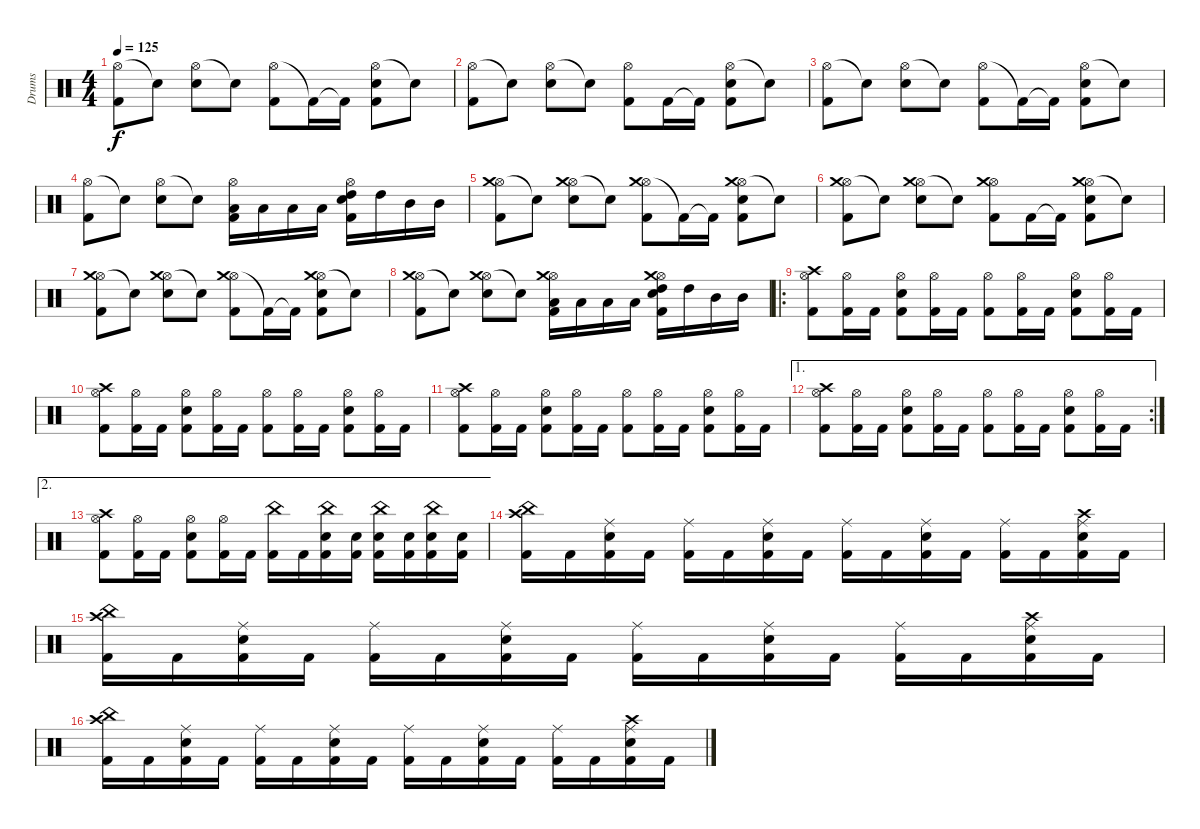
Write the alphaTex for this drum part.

\track ("Drums" "Drums") {instrument percussion}
\staff {score}
\articulation defaults
\ts (4 4)
\tempo 125
\clef neutral
\ks c
("Hi-Hat (open)" "Kick (hit) 2").8{dy f} "Snare (hit)"{t}.8 ("Hi-Hat (open)" "Snare (hit) 2").8 "Snare (hit)"{t}.8 ("Hi-Hat (open)" "Kick (hit) 2").8 "Kick (hit) 2"{t}.16 "Kick (hit) 2"{t}.16 ("Hi-Hat (open)" "Snare (hit) 2" "Kick (hit) 2").8 "Snare (hit)"{t}.8 |
("Hi-Hat (open)" "Kick (hit) 2").8 "Snare (hit)"{t}.8 ("Hi-Hat (open)" "Snare (hit) 2").8 "Snare (hit)"{t}.8 ("Hi-Hat (open)" "Kick (hit) 2").8 "Kick (hit) 2".16 "Kick (hit) 2"{t}.16 ("Hi-Hat (open)" "Snare (hit) 2" "Kick (hit) 2").8 "Snare (hit)"{t}.8 |
("Hi-Hat (open)" "Kick (hit) 2").8 "Snare (hit)"{t}.8 ("Hi-Hat (open)" "Snare (hit) 2").8 "Snare (hit)"{t}.8 ("Hi-Hat (open)" "Kick (hit) 2").8 "Kick (hit) 2"{t}.16 "Kick (hit) 2"{t}.16 ("Hi-Hat (open)" "Snare (hit) 2" "Kick (hit) 2").8 "Snare (hit)"{t}.8 |
("Hi-Hat (open)" "Kick (hit) 2").8 "Snare (hit)"{t}.8 ("Hi-Hat (open)" "Snare (hit) 2").8 "Snare (hit)"{t}.8 ("Hi-Hat (open)" "Kick (hit) 2" "Low Floor Tom (hit)").16 "Low Floor Tom (hit)".16 "Low Tom (hit)".16 "Low Tom (hit)".16 ("Hi-Hat (open)" "Kick (hit) 2" "Snare (hit) 2" "High Tom (hit)").16 "High Tom (hit)".16 "Mid Tom (hit)".16 "Mid Tom (hit)".16 |
("Hi-Hat (open)" "Crash medium (hit)" "Kick (hit) 2").8 "Snare (hit)"{t}.8 ("Hi-Hat (open)" "Crash medium (hit)" "Snare (hit) 2").8 "Snare (hit)"{t}.8 ("Hi-Hat (open)" "Crash medium (hit)" "Kick (hit) 2").8 "Kick (hit) 2"{t}.16 "Kick (hit) 2"{t}.16 ("Hi-Hat (open)" "Crash medium (hit)" "Snare (hit) 2" "Kick (hit) 2").8 "Snare (hit)"{t}.8 |
("Hi-Hat (open)" "Crash medium (hit)" "Kick (hit) 2").8 "Snare (hit)"{t}.8 ("Hi-Hat (open)" "Crash medium (hit)" "Snare (hit) 2").8 "Snare (hit)"{t}.8 ("Hi-Hat (open)" "Crash medium (hit)" "Kick (hit) 2").8 "Kick (hit) 2".16 "Kick (hit) 2"{t}.16 ("Hi-Hat (open)" "Crash medium (hit)" "Snare (hit) 2" "Kick (hit) 2").8 "Snare (hit)"{t}.8 |
("Hi-Hat (open)" "Crash medium (hit)" "Kick (hit) 2").8 "Snare (hit)"{t}.8 ("Hi-Hat (open)" "Crash medium (hit)" "Snare (hit) 2").8 "Snare (hit)"{t}.8 ("Hi-Hat (open)" "Crash medium (hit)" "Kick (hit) 2").8 "Kick (hit) 2"{t}.16 "Kick (hit) 2"{t}.16 ("Hi-Hat (open)" "Crash medium (hit)" "Snare (hit) 2" "Kick (hit) 2").8 "Snare (hit)"{t}.8 |
("Hi-Hat (open)" "Crash medium (hit)" "Kick (hit) 2").8 "Snare (hit)"{t}.8 ("Hi-Hat (open)" "Crash medium (hit)" "Snare (hit) 2").8 "Snare (hit)"{t}.8 ("Hi-Hat (open)" "Crash medium (hit)" "Kick (hit) 2" "Low Floor Tom (hit)").16 "Low Floor Tom (hit)".16 "Low Tom (hit)".16 "Low Tom (hit)".16 ("Hi-Hat (open)" "Crash medium (hit)" "Kick (hit) 2" "Snare (hit) 2" "High Tom (hit)").16 "High Tom (hit)".16 "Mid Tom (hit)".16 "Mid Tom (hit)".16 |
\ro
("Hi-Hat (open)" "Crash high (hit)" "Kick (hit) 2").8 ("Hi-Hat (open)" "Kick (hit) 2").16 "Kick (hit) 2".16 ("Hi-Hat (open)" "Snare (hit) 2" "Kick (hit) 2").8 ("Hi-Hat (open)" "Kick (hit) 2").16 "Kick (hit) 2".16 ("Hi-Hat (open)" "Kick (hit) 2").8 ("Hi-Hat (open)" "Kick (hit) 2").16 "Kick (hit) 2".16 ("Hi-Hat (open)" "Snare (hit) 2" "Kick (hit) 2").8 ("Hi-Hat (open)" "Kick (hit) 2").16 "Kick (hit) 2".16 |
("Hi-Hat (open)" "Crash high (hit)" "Kick (hit) 2").8 ("Hi-Hat (open)" "Kick (hit) 2").16 "Kick (hit) 2".16 ("Hi-Hat (open)" "Snare (hit) 2" "Kick (hit) 2").8 ("Hi-Hat (open)" "Kick (hit) 2").16 "Kick (hit) 2".16 ("Hi-Hat (open)" "Kick (hit) 2").8 ("Hi-Hat (open)" "Kick (hit) 2").16 "Kick (hit) 2".16 ("Hi-Hat (open)" "Snare (hit) 2" "Kick (hit) 2").8 ("Hi-Hat (open)" "Kick (hit) 2").16 "Kick (hit) 2".16 |
("Hi-Hat (open)" "Crash high (hit)" "Kick (hit) 2").8 ("Hi-Hat (open)" "Kick (hit) 2").16 "Kick (hit) 2".16 ("Hi-Hat (open)" "Snare (hit) 2" "Kick (hit) 2").8 ("Hi-Hat (open)" "Kick (hit) 2").16 "Kick (hit) 2".16 ("Hi-Hat (open)" "Kick (hit) 2").8 ("Hi-Hat (open)" "Kick (hit) 2").16 "Kick (hit) 2".16 ("Hi-Hat (open)" "Snare (hit) 2" "Kick (hit) 2").8 ("Hi-Hat (open)" "Kick (hit) 2").16 "Kick (hit) 2".16 |
\ae 1
\rc 2
("Hi-Hat (open)" "Crash high (hit)" "Kick (hit) 2").8 ("Hi-Hat (open)" "Kick (hit) 2").16 "Kick (hit) 2".16 ("Hi-Hat (open)" "Snare (hit) 2" "Kick (hit) 2").8 ("Hi-Hat (open)" "Kick (hit) 2").16 "Kick (hit) 2".16 ("Hi-Hat (open)" "Kick (hit) 2").8 ("Hi-Hat (open)" "Kick (hit) 2").16 "Kick (hit) 2".16 ("Hi-Hat (open)" "Snare (hit) 2" "Kick (hit) 2").8 ("Hi-Hat (open)" "Kick (hit) 2").16 "Kick (hit) 2".16 |
\ae 2
("Hi-Hat (open)" "Crash high (hit)" "Kick (hit) 2").8 ("Hi-Hat (open)" "Kick (hit) 2").16 "Kick (hit) 2".16 ("Hi-Hat (open)" "Snare (hit) 2" "Kick (hit) 2").8 ("Hi-Hat (open)" "Kick (hit) 2").16 "Kick (hit) 2".16 ("China (hit)" "Kick (hit) 2").16 "Kick (hit) 2".16 ("China (hit)" "Snare (hit) 2" "Kick (hit) 2").16 ("Snare (hit) 2" "Kick (hit) 2").16 ("China (hit)" "Snare (hit) 2" "Kick (hit) 2").16 ("Snare (hit) 2" "Kick (hit) 2").16 ("China (hit)" "Snare (hit) 2" "Kick (hit) 2").16 ("Snare (hit) 2" "Kick (hit) 2").16 |
("China (hit)" "Crash high (hit)" "Kick (hit) 2").16 "Kick (hit) 2".16 ("Ride (middle)" "Snare (hit) 2" "Kick (hit) 2").16 "Kick (hit) 2".16 ("Ride (middle)" "Kick (hit) 2").16 "Kick (hit) 2".16 ("Ride (middle)" "Snare (hit) 2" "Kick (hit) 2").16 "Kick (hit) 2".16 ("Ride (middle)" "Kick (hit) 2").16 "Kick (hit) 2".16 ("Ride (middle)" "Snare (hit) 2" "Kick (hit) 2").16 "Kick (hit) 2".16 ("Ride (middle)" "Kick (hit) 2").16 "Kick (hit) 2".16 ("Ride (middle)" "Crash high (hit)" "Snare (hit) 2" "Kick (hit) 2").16 "Kick (hit) 2".16 |
("China (hit)" "Crash high (hit)" "Kick (hit) 2").16 "Kick (hit) 2".16 ("Ride (middle)" "Snare (hit) 2" "Kick (hit) 2").16 "Kick (hit) 2".16 ("Ride (middle)" "Kick (hit) 2").16 "Kick (hit) 2".16 ("Ride (middle)" "Snare (hit) 2" "Kick (hit) 2").16 "Kick (hit) 2".16 ("Ride (middle)" "Kick (hit) 2").16 "Kick (hit) 2".16 ("Ride (middle)" "Snare (hit) 2" "Kick (hit) 2").16 "Kick (hit) 2".16 ("Ride (middle)" "Kick (hit) 2").16 "Kick (hit) 2".16 ("Ride (middle)" "Crash high (hit)" "Snare (hit) 2" "Kick (hit) 2").16 "Kick (hit) 2".16 |
("China (hit)" "Crash high (hit)" "Kick (hit) 2").16 "Kick (hit) 2".16 ("Ride (middle)" "Snare (hit) 2" "Kick (hit) 2").16 "Kick (hit) 2".16 ("Ride (middle)" "Kick (hit) 2").16 "Kick (hit) 2".16 ("Ride (middle)" "Snare (hit) 2" "Kick (hit) 2").16 "Kick (hit) 2".16 ("Ride (middle)" "Kick (hit) 2").16 "Kick (hit) 2".16 ("Ride (middle)" "Snare (hit) 2" "Kick (hit) 2").16 "Kick (hit) 2".16 ("Ride (middle)" "Kick (hit) 2").16 "Kick (hit) 2".16 ("Ride (middle)" "Crash high (hit)" "Snare (hit) 2" "Kick (hit) 2").16 "Kick (hit) 2".16
